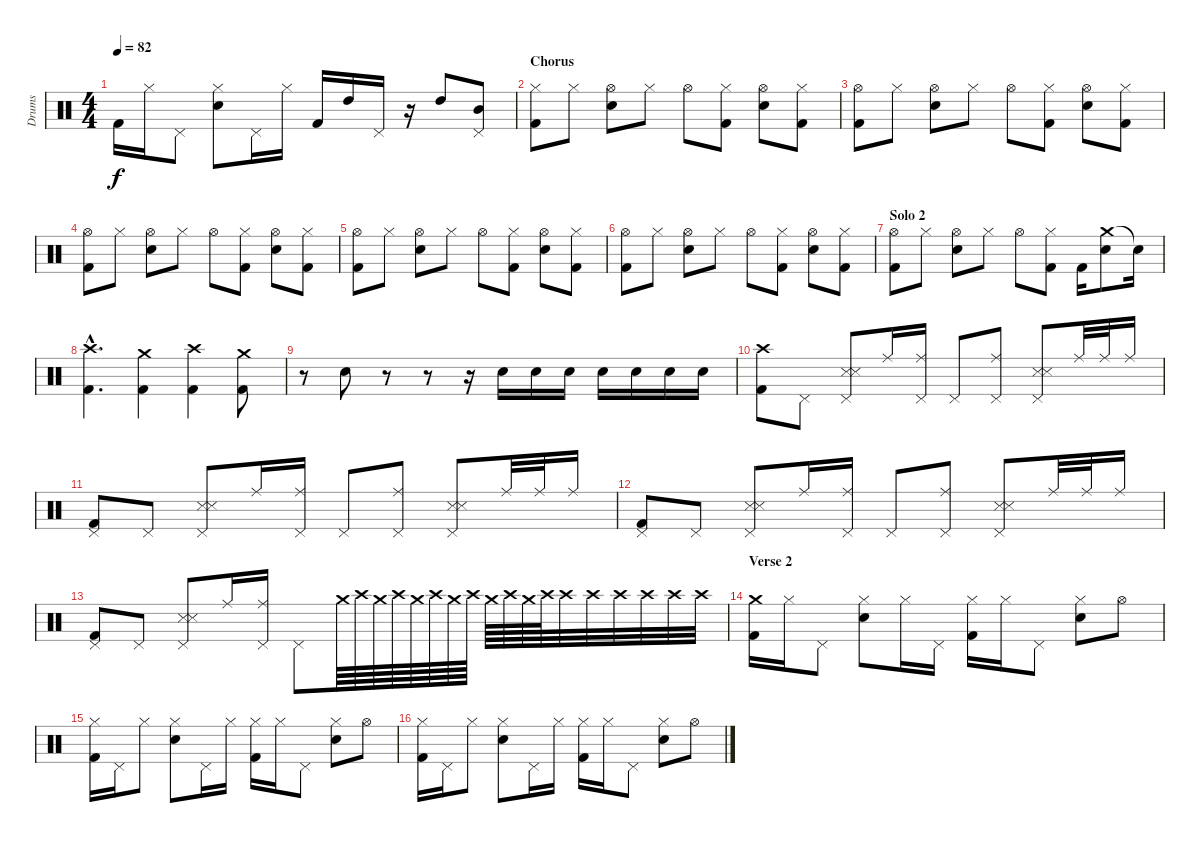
\track ("Drums" "Drums") {instrument percussion}
\staff {score}
\articulation defaults
\ts (4 4)
\tempo 82
\clef neutral
\ks c "Kick (hit) 2".16{dy f} "Hi-Hat (closed)".16 "Pedal Hi-Hat (hit)".8
("Snare (hit) 2" "Hi-Hat (closed)").8 "Pedal Hi-Hat (hit)".16 "Hi-Hat (closed)".16 "Kick (hit) 2".16 "High Tom (hit)".16 "Pedal Hi-Hat (hit)".16 r.16 "High Tom (hit)".8 ("Pedal Hi-Hat (hit)" "Mid Tom (hit)").8 |
\section ("" "Chorus")
("Hi-Hat (closed)" "Kick (hit) 2").8 "Hi-Hat (closed)".8 ("Hi-Hat (open)" "Snare (hit) 2").8 "Hi-Hat (closed)".8 "Hi-Hat (open)".8 ("Hi-Hat (closed)" "Kick (hit) 2").8 ("Hi-Hat (open)" "Snare (hit) 2").8 ("Hi-Hat (closed)" "Kick (hit) 2").8 |
("Hi-Hat (open)" "Kick (hit) 2").8 "Hi-Hat (closed)".8 ("Hi-Hat (open)" "Snare (hit) 2").8 "Hi-Hat (closed)".8 "Hi-Hat (open)".8 ("Hi-Hat (closed)" "Kick (hit) 2").8 ("Hi-Hat (open)" "Snare (hit) 2").8 ("Hi-Hat (closed)" "Kick (hit) 2").8 |
("Hi-Hat (open)" "Kick (hit) 2").8 "Hi-Hat (closed)".8 ("Hi-Hat (open)" "Snare (hit) 2").8 "Hi-Hat (closed)".8 "Hi-Hat (open)".8 ("Hi-Hat (closed)" "Kick (hit) 2").8 ("Hi-Hat (open)" "Snare (hit) 2").8 ("Hi-Hat (closed)" "Kick (hit) 2").8 |
("Hi-Hat (open)" "Kick (hit) 2").8 "Hi-Hat (closed)".8 ("Hi-Hat (open)" "Snare (hit) 2").8 "Hi-Hat (closed)".8 "Hi-Hat (open)".8 ("Hi-Hat (closed)" "Kick (hit) 2").8 ("Hi-Hat (open)" "Snare (hit) 2").8 ("Hi-Hat (closed)" "Kick (hit) 2").8 |
("Hi-Hat (open)" "Kick (hit) 2").8 "Hi-Hat (closed)".8 ("Hi-Hat (open)" "Snare (hit) 2").8 "Hi-Hat (closed)".8 "Hi-Hat (open)".8 ("Hi-Hat (closed)" "Kick (hit) 2").8 ("Hi-Hat (open)" "Snare (hit) 2").8 ("Hi-Hat (closed)" "Kick (hit) 2").8 |
\section ("" "Solo 2")
("Hi-Hat (open)" "Kick (hit) 2").8 "Hi-Hat (closed)".8 ("Hi-Hat (open)" "Snare (hit) 2").8 "Hi-Hat (closed)".8 "Hi-Hat (open)".8 ("Hi-Hat (closed)" "Kick (hit) 2").8 "Kick (hit) 2".16 ("Crash medium (hit)" "Snare (hit) 2").8 "Snare (hit)"{t}.16 |
("Crash high (hit)"{hac} "Kick (hit) 2"{hac}).4{d} ("Crash medium (hit)" "Kick (hit) 2").4 ("Crash high (hit)" "Kick (hit) 2").4 ("Crash medium (hit)" "Kick (hit) 2").8 |
r.8 "Snare (hit) 2".8 r.8 r.8 r.16{volume 8} "Snare (hit) 2".16{volume 15} "Snare (hit) 2".16 "Snare (hit) 2".16 "Snare (hit) 2".16 "Snare (hit) 2".16 "Snare (hit) 2".16 "Snare (hit) 2".16 |
("Crash high (hit)" "Kick (hit) 2").8{volume 15} "Pedal Hi-Hat (hit)".8 ("Pedal Hi-Hat (hit)" "Snare (side stick) 3" "Snare (side stick) 3").8 "Ride (middle)".16 ("Ride (middle)" "Pedal Hi-Hat (hit)").16 "Pedal Hi-Hat (hit)".8 ("Ride (middle)" "Pedal Hi-Hat (hit)").8 ("Pedal Hi-Hat (hit)" "Snare (side stick) 3" "Snare (side stick) 3").8 "Ride (middle)".32 "Ride (middle)".32 "Ride (middle)".16 |
("Pedal Hi-Hat (hit)" "Kick (hit) 2").8{volume 15} "Pedal Hi-Hat (hit)".8 ("Pedal Hi-Hat (hit)" "Snare (side stick) 3" "Snare (side stick) 3").8 "Ride (middle)".16 ("Ride (middle)" "Pedal Hi-Hat (hit)").16 "Pedal Hi-Hat (hit)".8 ("Ride (middle)" "Pedal Hi-Hat (hit)").8 ("Pedal Hi-Hat (hit)" "Snare (side stick) 3" "Snare (side stick) 3").8 "Ride (middle)".32 "Ride (middle)".32 "Ride (middle)".16 |
("Pedal Hi-Hat (hit)" "Kick (hit) 2").8{volume 15} "Pedal Hi-Hat (hit)".8 ("Pedal Hi-Hat (hit)" "Snare (side stick) 3" "Snare (side stick) 3").8 "Ride (middle)".16 ("Ride (middle)" "Pedal Hi-Hat (hit)").16 "Pedal Hi-Hat (hit)".8 ("Ride (middle)" "Pedal Hi-Hat (hit)").8 ("Pedal Hi-Hat (hit)" "Snare (side stick) 3" "Snare (side stick) 3").8 "Ride (middle)".32 "Ride (middle)".32 "Ride (middle)".16 |
("Pedal Hi-Hat (hit)" "Kick (hit) 2").8{volume 15} "Pedal Hi-Hat (hit)".8 ("Pedal Hi-Hat (hit)" "Snare (side stick) 3" "Snare (side stick) 3").8 "Ride (middle)".16 ("Ride (middle)" "Pedal Hi-Hat (hit)").16 "Pedal Hi-Hat (hit)".8 "Crash medium (hit)".64{volume 8} "Crash high (hit)".64{volume 15} "Crash medium (hit)".64 "Crash high (hit)".64 "Crash medium (hit)".64 "Crash high (hit)".64 "Crash medium (hit)".64 "Crash high (hit)".64 "Crash medium (hit)".64 "Crash high (hit)".64 "Crash medium (hit)".64 "Crash high (hit)".64 "Crash high (hit)".32 "Crash high (hit)".32 "Crash high (hit)".32 "Crash high (hit)".32 "Crash high (hit)".32 "Crash high (hit)".32 |
\section ("" "Verse 2")
("Crash medium (hit)" "Kick (hit) 2").16{volume 15} "Hi-Hat (closed)".16 "Pedal Hi-Hat (hit)".8 ("Hi-Hat (closed)" "Snare (hit) 2").8 "Hi-Hat (closed)".16 "Pedal Hi-Hat (hit)".16 ("Hi-Hat (closed)" "Kick (hit) 2").16 "Hi-Hat (closed)".16 "Pedal Hi-Hat (hit)".8 ("Hi-Hat (closed)" "Snare (hit) 2").8 "Hi-Hat (open)".8 |
("Hi-Hat (closed)" "Kick (hit) 2").16 "Pedal Hi-Hat (hit)".16 "Hi-Hat (closed)".8 ("Hi-Hat (closed)" "Snare (hit) 2").8 "Pedal Hi-Hat (hit)".16 "Hi-Hat (closed)".16 ("Hi-Hat (closed)" "Kick (hit) 2").16 "Hi-Hat (closed)".16 "Pedal Hi-Hat (hit)".8 ("Hi-Hat (closed)" "Snare (hit) 2").8 "Hi-Hat (open)".8 |
("Hi-Hat (closed)" "Kick (hit) 2").16 "Pedal Hi-Hat (hit)".16 "Hi-Hat (closed)".8 ("Hi-Hat (closed)" "Snare (hit) 2").8 "Pedal Hi-Hat (hit)".16 "Hi-Hat (closed)".16 ("Hi-Hat (closed)" "Kick (hit) 2").16 "Hi-Hat (closed)".16 "Pedal Hi-Hat (hit)".8 ("Hi-Hat (closed)" "Snare (hit) 2").8 "Hi-Hat (open)".8
